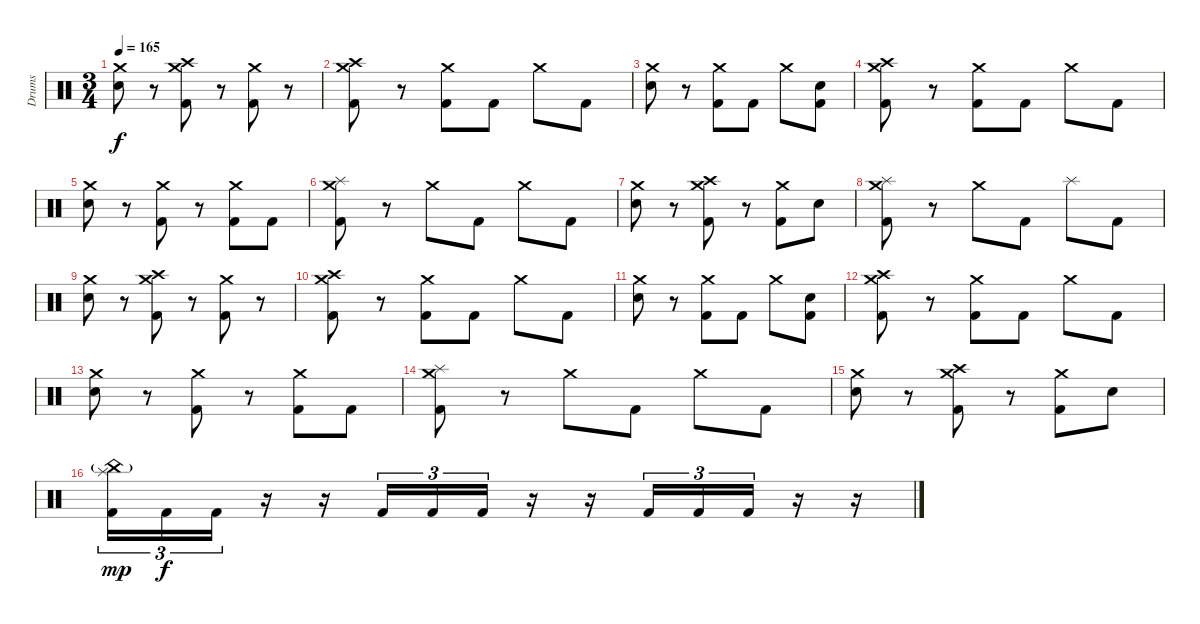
\track ("Drums" "Drums") {instrument percussion}
\staff {score}
\articulation defaults
\ts (3 4)
\tempo 165
\clef neutral
\ks c
("Crash medium (hit)" "Electric Snare (hit)").8{dy f} r.8 ("Crash high (hit)" "Crash medium (hit)" "Kick (hit) 2").8 r.8 ("Crash medium (hit)" "Kick (hit) 2").8 r.8 |
("Crash high (hit)" "Crash medium (hit)" "Kick (hit) 2").8 r.8 ("Crash medium (hit)" "Kick (hit) 2").8 "Kick (hit) 2".8 "Crash medium (hit)".8 "Kick (hit) 2".8 |
("Crash medium (hit)" "Electric Snare (hit)").8 r.8 ("Crash medium (hit)" "Kick (hit) 2").8 "Kick (hit) 2".8 "Crash medium (hit)".8 ("Electric Snare (hit)" "Kick (hit) 2").8 |
("Crash high (hit)" "Crash medium (hit)" "Kick (hit) 2").8 r.8 ("Crash medium (hit)" "Kick (hit) 2").8 "Kick (hit) 2".8 "Crash medium (hit)".8 "Kick (hit) 2".8 |
("Crash medium (hit)" "Electric Snare (hit)").8 r.8 ("Crash medium (hit)" "Kick (hit) 2").8 r.8 ("Crash medium (hit)" "Kick (hit) 2").8 "Kick (hit) 2".8 |
("Splash (hit)" "Crash medium (hit)" "Kick (hit) 2").8 r.8 "Crash medium (hit)".8 "Kick (hit) 2".8 "Crash medium (hit)".8 "Kick (hit) 2".8 |
("Crash medium (hit)" "Electric Snare (hit)").8 r.8 ("Crash high (hit)" "Crash medium (hit)" "Kick (hit) 2").8 r.8 ("Crash medium (hit)" "Kick (hit) 2").8 "Electric Snare (hit)".8 |
("Splash (hit)" "Crash medium (hit)" "Kick (hit) 2").8 r.8 "Crash medium (hit)".8 "Kick (hit) 2".8 "Splash (hit)".8 "Kick (hit) 2".8 |
("Crash medium (hit)" "Electric Snare (hit)").8 r.8 ("Crash high (hit)" "Crash medium (hit)" "Kick (hit) 2").8 r.8 ("Crash medium (hit)" "Kick (hit) 2").8 r.8 |
("Crash high (hit)" "Crash medium (hit)" "Kick (hit) 2").8 r.8 ("Crash medium (hit)" "Kick (hit) 2").8 "Kick (hit) 2".8 "Crash medium (hit)".8 "Kick (hit) 2".8 |
("Crash medium (hit)" "Electric Snare (hit)").8 r.8 ("Crash medium (hit)" "Kick (hit) 2").8 "Kick (hit) 2".8 "Crash medium (hit)".8 ("Electric Snare (hit)" "Kick (hit) 2").8 |
("Crash high (hit)" "Crash medium (hit)" "Kick (hit) 2").8 r.8 ("Crash medium (hit)" "Kick (hit) 2").8 "Kick (hit) 2".8 "Crash medium (hit)".8 "Kick (hit) 2".8 |
("Crash medium (hit)" "Electric Snare (hit)").8 r.8 ("Crash medium (hit)" "Kick (hit) 2").8 r.8 ("Crash medium (hit)" "Kick (hit) 2").8 "Kick (hit) 2".8 |
("Splash (hit)" "Crash medium (hit)" "Kick (hit) 2").8 r.8 "Crash medium (hit)".8 "Kick (hit) 2".8 "Crash medium (hit)".8 "Kick (hit) 2".8 |
("Crash medium (hit)" "Electric Snare (hit)").8 r.8 ("Crash high (hit)" "Crash medium (hit)" "Kick (hit) 2").8 r.8 ("Crash medium (hit)" "Kick (hit) 2").8 "Electric Snare (hit)".8 |
("China (hit)"{g} "Splash (hit)" "Kick (hit) 2").16{tu (3 2) dy mp} "Kick (hit) 2".16{tu (3 2) dy f} "Kick (hit) 2".16{tu (3 2)} r.16 r.16 "Kick (hit) 2".16{tu (3 2)} "Kick (hit) 2".16{tu (3 2)} "Kick (hit) 2".16{tu (3 2)} r.16 r.16 "Kick (hit) 2".16{tu (3 2)} "Kick (hit) 2".16{tu (3 2)} "Kick (hit) 2".16{tu (3 2)} r.16 r.16
